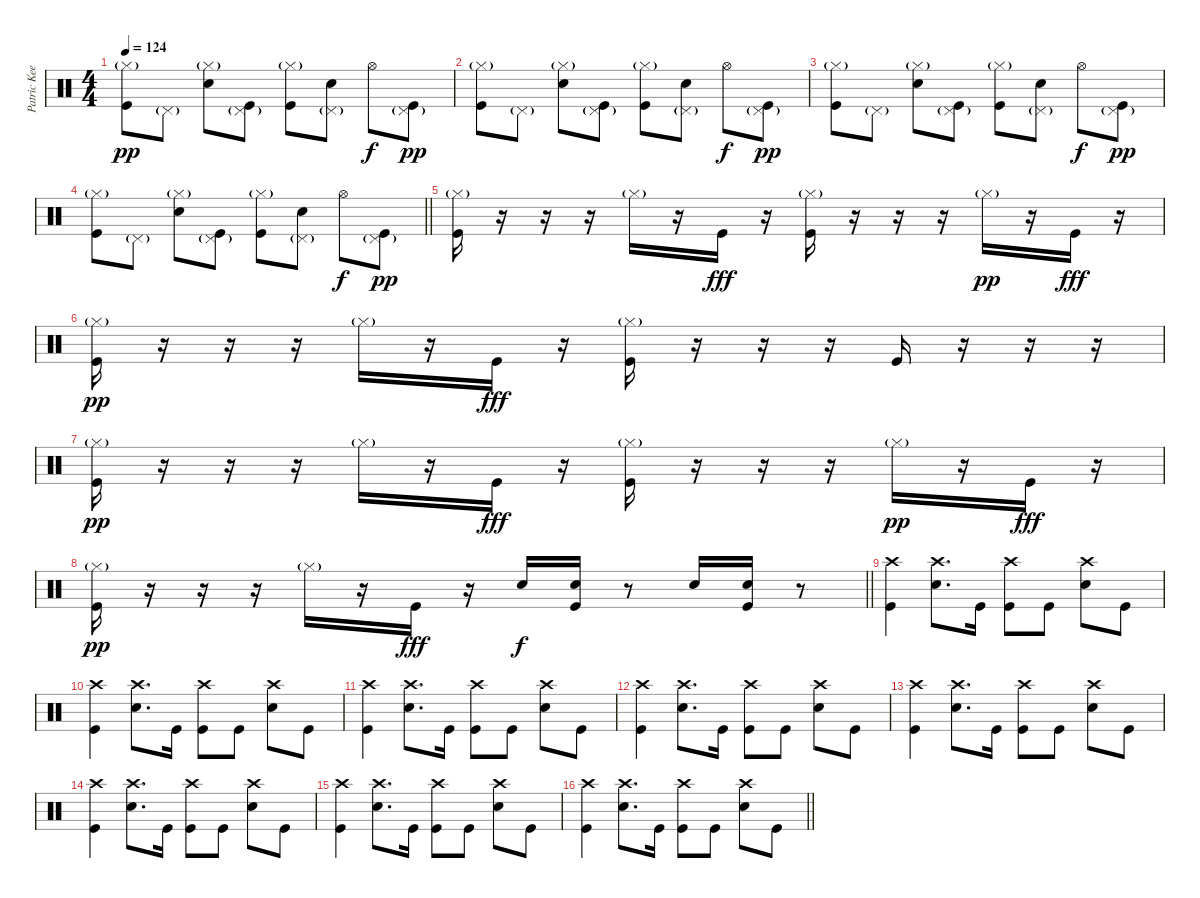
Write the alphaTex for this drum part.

\track ("Patric Keeler (Drums)" "Patric Kee") {instrument percussion}
\staff {score}
\articulation defaults
\ts (4 4)
\tempo 124
\clef neutral
\ks c
("Hi-Hat (closed)"{g} "Kick (hit)").8{dy pp} "Pedal Hi-Hat (hit)"{g}.8 ("Hi-Hat (closed)"{g} "Snare (hit) 2").8 ("Pedal Hi-Hat (hit)"{g} "Kick (hit)").8 ("Hi-Hat (closed)"{g} "Kick (hit)").8 ("Pedal Hi-Hat (hit)"{g} "Snare (hit) 2").8 "Hi-Hat (open)".8{dy f} ("Pedal Hi-Hat (hit)"{g} "Kick (hit)").8{dy pp} |
("Hi-Hat (closed)"{g} "Kick (hit)").8 "Pedal Hi-Hat (hit)"{g}.8 ("Hi-Hat (closed)"{g} "Snare (hit) 2").8 ("Pedal Hi-Hat (hit)"{g} "Kick (hit)").8 ("Hi-Hat (closed)"{g} "Kick (hit)").8 ("Pedal Hi-Hat (hit)"{g} "Snare (hit) 2").8 "Hi-Hat (open)".8{dy f} ("Pedal Hi-Hat (hit)"{g} "Kick (hit)").8{dy pp} |
("Hi-Hat (closed)"{g} "Kick (hit)").8 "Pedal Hi-Hat (hit)"{g}.8 ("Hi-Hat (closed)"{g} "Snare (hit) 2").8 ("Pedal Hi-Hat (hit)"{g} "Kick (hit)").8 ("Hi-Hat (closed)"{g} "Kick (hit)").8 ("Pedal Hi-Hat (hit)"{g} "Snare (hit) 2").8 "Hi-Hat (open)".8{dy f} ("Pedal Hi-Hat (hit)"{g} "Kick (hit)").8{dy pp} |
\barLineRight lightlight
("Hi-Hat (closed)"{g} "Kick (hit)").8 "Pedal Hi-Hat (hit)"{g}.8 ("Hi-Hat (closed)"{g} "Snare (hit) 2").8 ("Pedal Hi-Hat (hit)"{g} "Kick (hit)").8 ("Hi-Hat (closed)"{g} "Kick (hit)").8 ("Pedal Hi-Hat (hit)"{g} "Snare (hit) 2").8 "Hi-Hat (open)".8{dy f} ("Pedal Hi-Hat (hit)"{g} "Kick (hit)").8{dy pp} |
("Hi-Hat (closed)"{g} "Kick (hit)").16 r.16 r.16 r.16 "Hi-Hat (closed)"{g}.16 r.16 "Kick (hit)".16{dy fff} r.16 ("Hi-Hat (closed)"{g} "Kick (hit)").16 r.16 r.16 r.16 "Hi-Hat (closed)"{g}.16{dy pp} r.16 "Kick (hit)".16{dy fff} r.16 |
("Hi-Hat (closed)"{g} "Kick (hit)").16{dy pp} r.16 r.16 r.16 "Hi-Hat (closed)"{g}.16 r.16 "Kick (hit)".16{dy fff} r.16 ("Hi-Hat (closed)"{g} "Kick (hit)").16 r.16 r.16 r.16 "Kick (hit)".16 r.16 r.16 r.16 |
("Hi-Hat (closed)"{g} "Kick (hit)").16{dy pp} r.16 r.16 r.16 "Hi-Hat (closed)"{g}.16 r.16 "Kick (hit)".16{dy fff} r.16 ("Hi-Hat (closed)"{g} "Kick (hit)").16 r.16 r.16 r.16 "Hi-Hat (closed)"{g}.16{dy pp} r.16 "Kick (hit)".16{dy fff} r.16 |
\barLineRight lightlight
("Hi-Hat (closed)"{g} "Kick (hit)").16{dy pp} r.16 r.16 r.16 "Hi-Hat (closed)"{g}.16 r.16 "Kick (hit)".16{dy fff} r.16 "Snare (hit) 2".16{dy f} ("Snare (hit) 2" "Kick (hit)").16 r.8 "Snare (hit) 2".16 ("Snare (hit) 2" "Kick (hit)").16 r.8 |
("Crash high (hit)" "Kick (hit)").4 ("Crash high (hit)" "Snare (hit) 2").8{d} "Kick (hit)".16 ("Crash high (hit)" "Kick (hit)").8 "Kick (hit)".8 ("Crash high (hit)" "Snare (hit) 2").8 "Kick (hit)".8 |
("Crash high (hit)" "Kick (hit)").4 ("Crash high (hit)" "Snare (hit) 2").8{d} "Kick (hit)".16 ("Crash high (hit)" "Kick (hit)").8 "Kick (hit)".8 ("Crash high (hit)" "Snare (hit) 2").8 "Kick (hit)".8 |
("Crash high (hit)" "Kick (hit)").4 ("Crash high (hit)" "Snare (hit) 2").8{d} "Kick (hit)".16 ("Crash high (hit)" "Kick (hit)").8 "Kick (hit)".8 ("Crash high (hit)" "Snare (hit) 2").8 "Kick (hit)".8 |
("Crash high (hit)" "Kick (hit)").4 ("Crash high (hit)" "Snare (hit) 2").8{d} "Kick (hit)".16 ("Crash high (hit)" "Kick (hit)").8 "Kick (hit)".8 ("Crash high (hit)" "Snare (hit) 2").8 "Kick (hit)".8 |
("Crash high (hit)" "Kick (hit)").4 ("Crash high (hit)" "Snare (hit) 2").8{d} "Kick (hit)".16 ("Crash high (hit)" "Kick (hit)").8 "Kick (hit)".8 ("Crash high (hit)" "Snare (hit) 2").8 "Kick (hit)".8 |
("Crash high (hit)" "Kick (hit)").4 ("Crash high (hit)" "Snare (hit) 2").8{d} "Kick (hit)".16 ("Crash high (hit)" "Kick (hit)").8 "Kick (hit)".8 ("Crash high (hit)" "Snare (hit) 2").8 "Kick (hit)".8 |
("Crash high (hit)" "Kick (hit)").4 ("Crash high (hit)" "Snare (hit) 2").8{d} "Kick (hit)".16 ("Crash high (hit)" "Kick (hit)").8 "Kick (hit)".8 ("Crash high (hit)" "Snare (hit) 2").8 "Kick (hit)".8 |
\barLineRight lightlight
("Crash high (hit)" "Kick (hit)").4 ("Crash high (hit)" "Snare (hit) 2").8{d} "Kick (hit)".16 ("Crash high (hit)" "Kick (hit)").8 "Kick (hit)".8 ("Crash high (hit)" "Snare (hit) 2").8 "Kick (hit)".8
